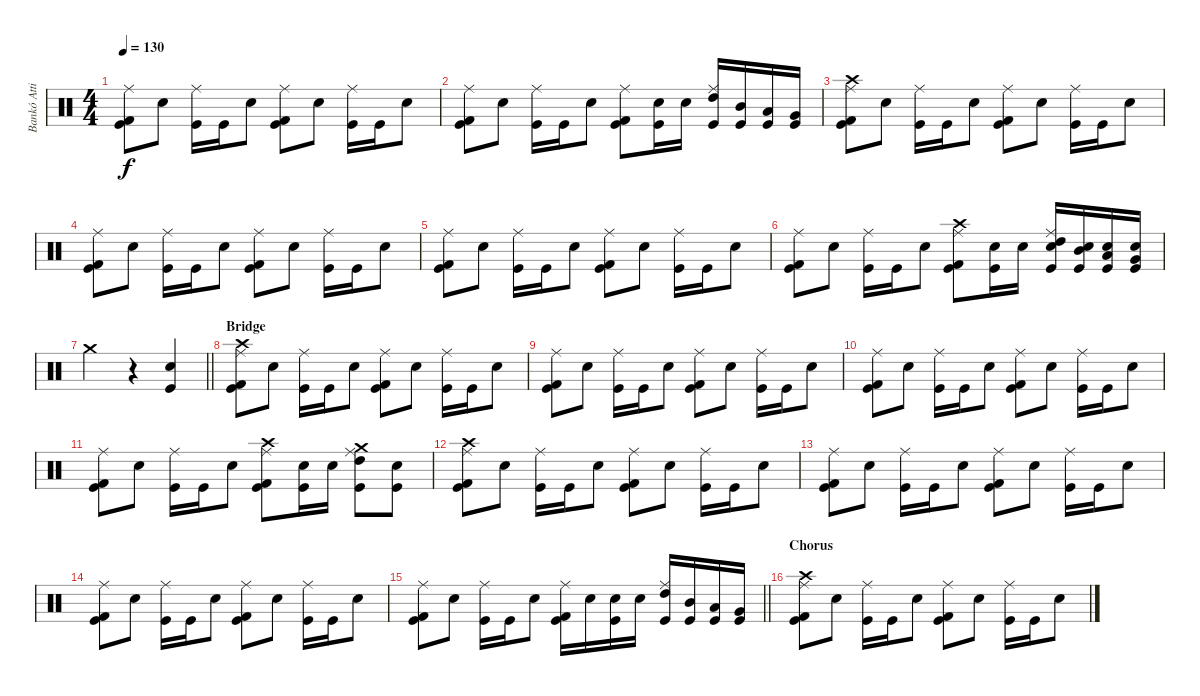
\track ("Bankó Attila-Drum" "Bankó Atti") {instrument percussion}
\staff {score}
\articulation defaults
\ts (4 4)
\tempo 130
\clef neutral
\ks c
("Kick (hit) 2" "Kick (hit)" "Ride (middle)").8{dy f} "Snare (hit) 2".8 ("Kick (hit)" "Ride (middle)").16 "Kick (hit)".16 "Snare (hit) 2".8 ("Kick (hit) 2" "Kick (hit)" "Ride (middle)").8 "Snare (hit) 2".8 ("Kick (hit)" "Ride (middle)").16 "Kick (hit)".16 "Snare (hit) 2".8 |
("Kick (hit) 2" "Kick (hit)" "Ride (middle)").8 "Snare (hit) 2".8 ("Kick (hit)" "Ride (middle)").16 "Kick (hit)".16 "Snare (hit) 2".8 ("Kick (hit) 2" "Kick (hit)" "Ride (middle)").8 ("Snare (hit) 2" "Kick (hit)").16 "Snare (hit) 2".16 ("High Tom (hit)" "Kick (hit)" "Ride (middle)").16 ("Mid Tom (hit)" "Kick (hit)").16 ("Low Tom (hit)" "Kick (hit)").16 ("Very Low Tom (hit)" "Kick (hit)").16 |
("Kick (hit) 2" "Kick (hit)" "Crash high (hit)" "Ride (middle)").8 "Snare (hit) 2".8 ("Kick (hit)" "Ride (middle)").16 "Kick (hit)".16 "Snare (hit) 2".8 ("Kick (hit) 2" "Kick (hit)" "Ride (middle)").8 "Snare (hit) 2".8 ("Kick (hit)" "Ride (middle)").16 "Kick (hit)".16 "Snare (hit) 2".8 |
("Kick (hit) 2" "Kick (hit)" "Ride (middle)").8 "Snare (hit) 2".8 ("Kick (hit)" "Ride (middle)").16 "Kick (hit)".16 "Snare (hit) 2".8 ("Kick (hit) 2" "Kick (hit)" "Ride (middle)").8 "Snare (hit) 2".8 ("Kick (hit)" "Ride (middle)").16 "Kick (hit)".16 "Snare (hit) 2".8 |
("Kick (hit) 2" "Kick (hit)" "Ride (middle)").8 "Snare (hit) 2".8 ("Kick (hit)" "Ride (middle)").16 "Kick (hit)".16 "Snare (hit) 2".8 ("Kick (hit) 2" "Kick (hit)" "Ride (middle)").8 "Snare (hit) 2".8 ("Kick (hit)" "Ride (middle)").16 "Kick (hit)".16 "Snare (hit) 2".8 |
("Kick (hit) 2" "Kick (hit)" "Ride (middle)").8 "Snare (hit) 2".8 ("Kick (hit)" "Ride (middle)").16 "Kick (hit)".16 "Snare (hit) 2".8 ("Kick (hit) 2" "Kick (hit)" "Crash high (hit)" "Ride (middle)").8 ("Snare (hit) 2" "Kick (hit)").16 "Snare (hit) 2".16 ("High Tom (hit)" "Kick (hit)" "Snare (hit) 2" "Ride (middle)").16 ("Mid Tom (hit)" "Kick (hit)" "Snare (hit) 2").16 ("Low Tom (hit)" "Kick (hit)" "Snare (hit) 2").16 ("Very Low Tom (hit)" "Kick (hit)" "Snare (hit) 2").16 |
\barLineRight lightlight "Crash medium (hit)".2
r.4 ("Kick (hit)" "Snare (hit) 2").4 |
\section ("" "Bridge")
("Kick (hit) 2" "Kick (hit)" "Crash high (hit)" "Ride (middle)").8 "Snare (hit) 2".8 ("Kick (hit)" "Ride (middle)").16 "Kick (hit)".16 "Snare (hit) 2".8 ("Kick (hit) 2" "Kick (hit)" "Ride (middle)").8 "Snare (hit) 2".8 ("Kick (hit)" "Ride (middle)").16 "Kick (hit)".16 "Snare (hit) 2".8 |
("Kick (hit) 2" "Kick (hit)" "Ride (middle)").8 "Snare (hit) 2".8 ("Kick (hit)" "Ride (middle)").16 "Kick (hit)".16 "Snare (hit) 2".8 ("Kick (hit) 2" "Kick (hit)" "Ride (middle)").8 "Snare (hit) 2".8 ("Kick (hit)" "Ride (middle)").16 "Kick (hit)".16 "Snare (hit) 2".8 |
("Kick (hit) 2" "Kick (hit)" "Ride (middle)").8 "Snare (hit) 2".8 ("Kick (hit)" "Ride (middle)").16 "Kick (hit)".16 "Snare (hit) 2".8 ("Kick (hit) 2" "Kick (hit)" "Ride (middle)").8 "Snare (hit) 2".8 ("Kick (hit)" "Ride (middle)").16 "Kick (hit)".16 "Snare (hit) 2".8 |
("Kick (hit) 2" "Kick (hit)" "Ride (middle)").8 "Snare (hit) 2".8 ("Kick (hit)" "Ride (middle)").16 "Kick (hit)".16 "Snare (hit) 2".8 ("Kick (hit) 2" "Kick (hit)" "Crash high (hit)" "Ride (middle)").8 ("Snare (hit) 2" "Kick (hit)").16 "Snare (hit) 2".16 ("High Tom (hit)" "Kick (hit)" "Crash medium (hit)" "Ride (middle)").8 ("Snare (hit) 2" "Kick (hit)").8 |
("Kick (hit) 2" "Kick (hit)" "Crash high (hit)" "Ride (middle)").8 "Snare (hit) 2".8 ("Kick (hit)" "Ride (middle)").16 "Kick (hit)".16 "Snare (hit) 2".8 ("Kick (hit) 2" "Kick (hit)" "Ride (middle)").8 "Snare (hit) 2".8 ("Kick (hit)" "Ride (middle)").16 "Kick (hit)".16 "Snare (hit) 2".8 |
("Kick (hit) 2" "Kick (hit)" "Ride (middle)").8 "Snare (hit) 2".8 ("Kick (hit)" "Ride (middle)").16 "Kick (hit)".16 "Snare (hit) 2".8 ("Kick (hit) 2" "Kick (hit)" "Ride (middle)").8 "Snare (hit) 2".8 ("Kick (hit)" "Ride (middle)").16 "Kick (hit)".16 "Snare (hit) 2".8 |
("Kick (hit) 2" "Kick (hit)" "Ride (middle)").8 "Snare (hit) 2".8 ("Kick (hit)" "Ride (middle)").16 "Kick (hit)".16 "Snare (hit) 2".8 ("Kick (hit) 2" "Kick (hit)" "Ride (middle)").8 "Snare (hit) 2".8 ("Kick (hit)" "Ride (middle)").16 "Kick (hit)".16 "Snare (hit) 2".8 |
\barLineRight lightlight
("Kick (hit) 2" "Kick (hit)" "Ride (middle)").8 "Snare (hit) 2".8 ("Kick (hit)" "Ride (middle)").16 "Kick (hit)".16 "Snare (hit) 2".8 ("Kick (hit) 2" "Kick (hit)" "Ride (middle)").16 "Snare (hit) 2".16 ("Snare (hit) 2" "Kick (hit)").16 "Snare (hit) 2".16 ("High Tom (hit)" "Kick (hit)" "Ride (middle)").16 ("Mid Tom (hit)" "Kick (hit)").16 ("Low Tom (hit)" "Kick (hit)").16 ("Very Low Tom (hit)" "Kick (hit)").16 |
\section ("" "Chorus")
("Kick (hit) 2" "Kick (hit)" "Crash high (hit)" "Ride (middle)").8 "Snare (hit) 2".8 ("Kick (hit)" "Ride (middle)").16 "Kick (hit)".16 "Snare (hit) 2".8 ("Kick (hit) 2" "Kick (hit)" "Ride (middle)").8 "Snare (hit) 2".8 ("Kick (hit)" "Ride (middle)").16 "Kick (hit)".16 "Snare (hit) 2".8
